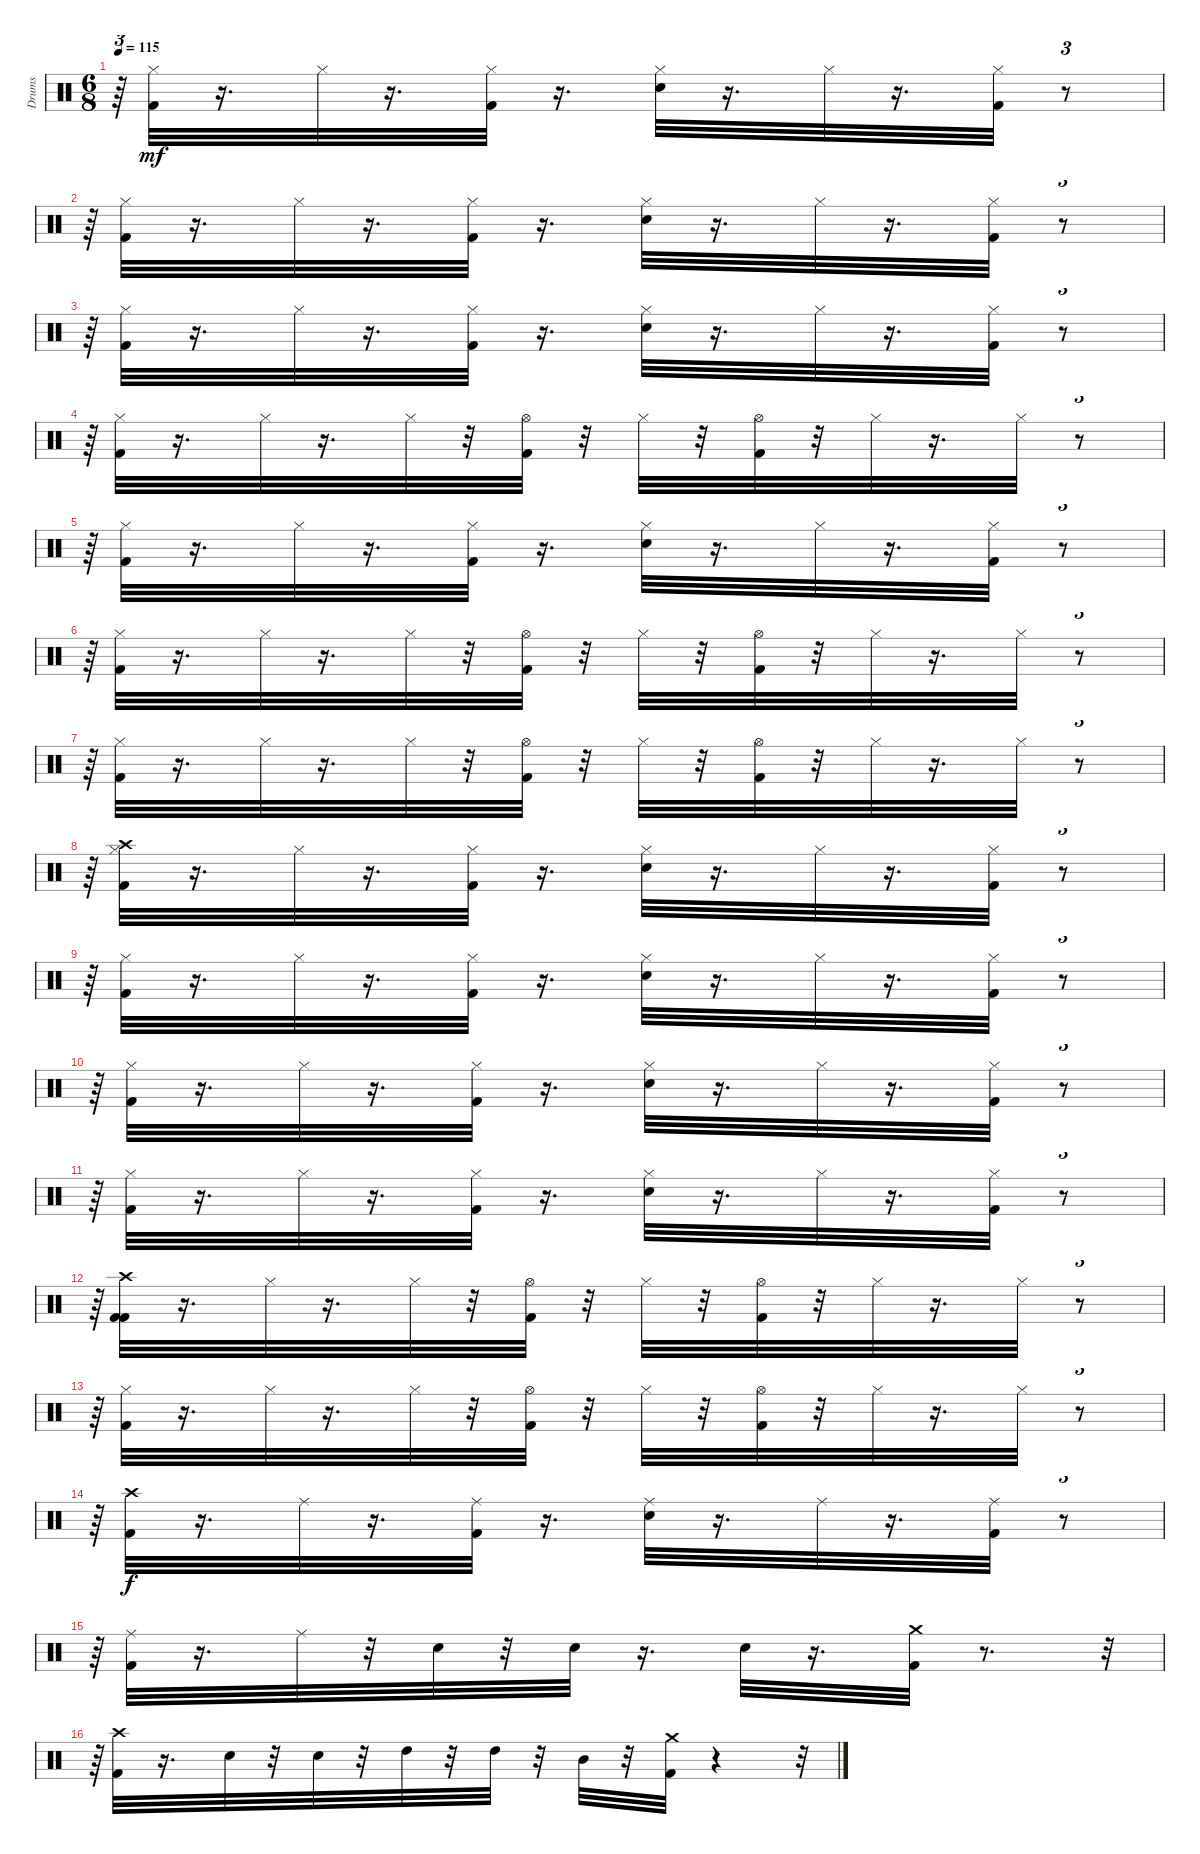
\track ("Drums" "Drums") {instrument percussion}
\staff {score}
\articulation defaults
\ts (6 8)
\tempo 115
\clef neutral
\ks c
r.64{tu (3 2) dy mf} ("Hi-Hat (closed)" "Kick (hit) 2").32 r.16{d} "Hi-Hat (closed)".32 r.16{d} ("Hi-Hat (closed)" "Kick (hit) 2").32 r.16{d} ("Hi-Hat (closed)" "Snare (hit) 2").32 r.16{d} "Hi-Hat (closed)".32 r.16{d} ("Hi-Hat (closed)" "Kick (hit) 2").32 r.8{tu (3 2)} |
r.64{tu (3 2)} ("Hi-Hat (closed)" "Kick (hit) 2").32 r.16{d} "Hi-Hat (closed)".32 r.16{d} ("Hi-Hat (closed)" "Kick (hit) 2").32 r.16{d} ("Hi-Hat (closed)" "Snare (hit) 2").32 r.16{d} "Hi-Hat (closed)".32 r.16{d} ("Hi-Hat (closed)" "Kick (hit) 2").32 r.8{tu (3 2)} |
r.64{tu (3 2)} ("Hi-Hat (closed)" "Kick (hit) 2").32 r.16{d} "Hi-Hat (closed)".32 r.16{d} ("Hi-Hat (closed)" "Kick (hit) 2").32 r.16{d} ("Hi-Hat (closed)" "Snare (hit) 2").32 r.16{d} "Hi-Hat (closed)".32 r.16{d} ("Hi-Hat (closed)" "Kick (hit) 2").32 r.8{tu (3 2)} |
r.64{tu (3 2)} ("Hi-Hat (closed)" "Kick (hit) 2").32 r.16{d} "Hi-Hat (closed)".32 r.16{d} "Hi-Hat (closed)".32 r.32 ("Hi-Hat (open)" "Kick (hit) 2").32 r.32 "Hi-Hat (closed)".32 r.32 ("Hi-Hat (open)" "Kick (hit) 2").32 r.32 "Hi-Hat (closed)".32 r.16{d} "Hi-Hat (closed)".32 r.8{tu (3 2)} |
r.64{tu (3 2)} ("Hi-Hat (closed)" "Kick (hit) 2").32 r.16{d} "Hi-Hat (closed)".32 r.16{d} ("Hi-Hat (closed)" "Kick (hit) 2").32 r.16{d} ("Hi-Hat (closed)" "Snare (hit) 2").32 r.16{d} "Hi-Hat (closed)".32 r.16{d} ("Hi-Hat (closed)" "Kick (hit) 2").32 r.8{tu (3 2)} |
r.64{tu (3 2)} ("Hi-Hat (closed)" "Kick (hit) 2").32 r.16{d} "Hi-Hat (closed)".32 r.16{d} "Hi-Hat (closed)".32 r.32 ("Hi-Hat (open)" "Kick (hit) 2").32 r.32 "Hi-Hat (closed)".32 r.32 ("Hi-Hat (open)" "Kick (hit) 2").32 r.32 "Hi-Hat (closed)".32 r.16{d} "Hi-Hat (closed)".32 r.8{tu (3 2)} |
r.64{tu (3 2)} ("Hi-Hat (closed)" "Kick (hit) 2").32 r.16{d} "Hi-Hat (closed)".32 r.16{d} "Hi-Hat (closed)".32 r.32 ("Hi-Hat (open)" "Kick (hit) 2").32 r.32 "Hi-Hat (closed)".32 r.32 ("Hi-Hat (open)" "Kick (hit) 2").32 r.32 "Hi-Hat (closed)".32 r.16{d} "Hi-Hat (closed)".32 r.8{tu (3 2)} |
r.64{tu (3 2)} ("Hi-Hat (closed)" "Kick (hit) 2" "Crash high (hit)").32 r.16{d} "Hi-Hat (closed)".32 r.16{d} ("Hi-Hat (closed)" "Kick (hit) 2").32 r.16{d} ("Hi-Hat (closed)" "Snare (hit) 2").32 r.16{d} "Hi-Hat (closed)".32 r.16{d} ("Hi-Hat (closed)" "Kick (hit) 2").32 r.8{tu (3 2)} |
r.64{tu (3 2)} ("Hi-Hat (closed)" "Kick (hit) 2").32 r.16{d} "Hi-Hat (closed)".32 r.16{d} ("Hi-Hat (closed)" "Kick (hit) 2").32 r.16{d} ("Hi-Hat (closed)" "Snare (hit) 2").32 r.16{d} "Hi-Hat (closed)".32 r.16{d} ("Hi-Hat (closed)" "Kick (hit) 2").32 r.8{tu (3 2)} |
r.64{tu (3 2)} ("Hi-Hat (closed)" "Kick (hit) 2").32 r.16{d} "Hi-Hat (closed)".32 r.16{d} ("Hi-Hat (closed)" "Kick (hit) 2").32 r.16{d} ("Hi-Hat (closed)" "Snare (hit) 2").32 r.16{d} "Hi-Hat (closed)".32 r.16{d} ("Hi-Hat (closed)" "Kick (hit) 2").32 r.8{tu (3 2)} |
r.64{tu (3 2)} ("Hi-Hat (closed)" "Kick (hit) 2").32 r.16{d} "Hi-Hat (closed)".32 r.16{d} ("Hi-Hat (closed)" "Kick (hit) 2").32 r.16{d} ("Hi-Hat (closed)" "Snare (hit) 2").32 r.16{d} "Hi-Hat (closed)".32 r.16{d} ("Hi-Hat (closed)" "Kick (hit) 2").32 r.8{tu (3 2)} |
r.64{tu (3 2)} ("Crash high (hit)" "Kick (hit) 2" "Kick (hit) 2").32 r.16{d} "Hi-Hat (closed)".32 r.16{d} "Hi-Hat (closed)".32 r.32 ("Hi-Hat (open)" "Kick (hit) 2").32 r.32 "Hi-Hat (closed)".32 r.32 ("Hi-Hat (open)" "Kick (hit) 2").32 r.32 "Hi-Hat (closed)".32 r.16{d} "Hi-Hat (closed)".32 r.8{tu (3 2)} |
r.64{tu (3 2)} ("Hi-Hat (closed)" "Kick (hit) 2").32 r.16{d} "Hi-Hat (closed)".32 r.16{d} "Hi-Hat (closed)".32 r.32 ("Hi-Hat (open)" "Kick (hit) 2").32 r.32 "Hi-Hat (closed)".32 r.32 ("Hi-Hat (open)" "Kick (hit) 2").32 r.32 "Hi-Hat (closed)".32 r.16{d} "Hi-Hat (closed)".32 r.8{tu (3 2)} |
r.64{tu (3 2)} ("Kick (hit) 2" "Crash high (hit)").32{dy f} r.16{d} "Ride (middle)".32 r.16{d} ("Kick (hit) 2" "Ride (middle)").32 r.16{d} ("Snare (hit) 2" "Ride (middle)").32 r.16{d} "Ride (middle)".32 r.16{d} ("Ride (middle)" "Kick (hit) 2").32 r.8{tu (3 2)} |
r.64{tu (3 2)} ("Ride (middle)" "Kick (hit) 2").32 r.16{d} "Ride (middle)".32 r.32 "Snare (hit) 2".32 r.32 "Snare (hit) 2".32 r.16{d} "Snare (hit) 2".32 r.16{d} ("Kick (hit) 2" "Crash medium (hit)").32 r.8{d} r.32{tu (3 2)} |
r.64{tu (3 2)} ("Kick (hit) 2" "Crash high (hit)").32 r.16{d} "Snare (hit) 2".32 r.32 "Snare (hit) 2".32 r.32 "High Tom (hit)".32 r.32 "High Tom (hit)".32 r.32 "Mid Tom (hit)".32 r.32 ("Crash medium (hit)" "Kick (hit) 2").32 r.4 r.32{tu (3 2)}
